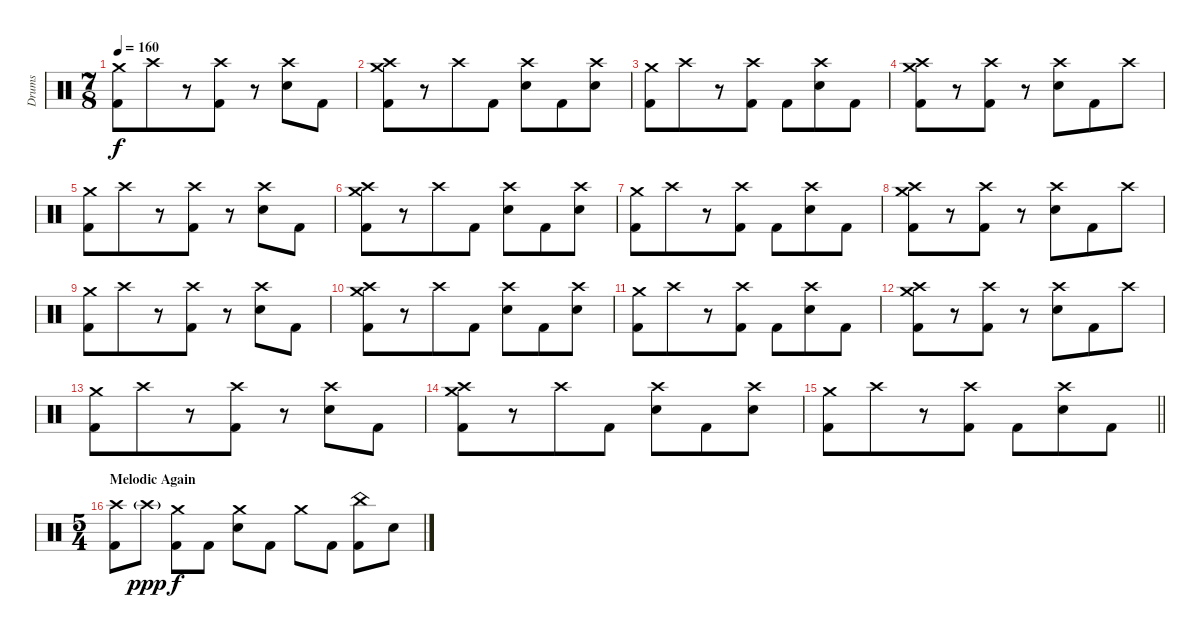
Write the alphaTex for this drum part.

\track ("Drums" "Drums") {instrument percussion}
\staff {score}
\articulation defaults
\ts (7 8)
\tempo 160
\clef neutral
\ks c
("Crash medium (hit)" "Kick (hit) 2").8{dy f} "Crash high (hit)".8 r.8 ("Crash high (hit)" "Kick (hit) 2").8 r.8 ("Crash high (hit)" "Electric Snare (hit)").8 "Kick (hit) 2".8 |
("Crash high (hit)" "Crash medium (hit)" "Kick (hit) 2").8 r.8 "Crash high (hit)".8 "Kick (hit) 2".8 ("Crash high (hit)" "Electric Snare (hit)").8 "Kick (hit) 2".8 ("Crash high (hit)" "Electric Snare (hit)").8 |
("Crash medium (hit)" "Kick (hit) 2").8 "Crash high (hit)".8 r.8 ("Crash high (hit)" "Kick (hit) 2").8 "Kick (hit) 2".8 ("Crash high (hit)" "Electric Snare (hit)").8 "Kick (hit) 2".8 |
("Crash high (hit)" "Crash medium (hit)" "Kick (hit) 2").8 r.8 ("Crash high (hit)" "Kick (hit) 2").8 r.8 ("Crash high (hit)" "Electric Snare (hit)").8 "Kick (hit) 2".8 "Crash high (hit)".8 |
("Crash medium (hit)" "Kick (hit) 2").8 "Crash high (hit)".8 r.8 ("Crash high (hit)" "Kick (hit) 2").8 r.8 ("Crash high (hit)" "Electric Snare (hit)").8 "Kick (hit) 2".8 |
("Crash high (hit)" "Crash medium (hit)" "Kick (hit) 2").8 r.8 "Crash high (hit)".8 "Kick (hit) 2".8 ("Crash high (hit)" "Electric Snare (hit)").8 "Kick (hit) 2".8 ("Crash high (hit)" "Electric Snare (hit)").8 |
("Crash medium (hit)" "Kick (hit) 2").8 "Crash high (hit)".8 r.8 ("Crash high (hit)" "Kick (hit) 2").8 "Kick (hit) 2".8 ("Crash high (hit)" "Electric Snare (hit)").8 "Kick (hit) 2".8 |
("Crash high (hit)" "Crash medium (hit)" "Kick (hit) 2").8 r.8 ("Crash high (hit)" "Kick (hit) 2").8 r.8 ("Crash high (hit)" "Electric Snare (hit)").8 "Kick (hit) 2".8 "Crash high (hit)".8 |
("Crash medium (hit)" "Kick (hit) 2").8 "Crash high (hit)".8 r.8 ("Crash high (hit)" "Kick (hit) 2").8 r.8 ("Crash high (hit)" "Electric Snare (hit)").8 "Kick (hit) 2".8 |
("Crash high (hit)" "Crash medium (hit)" "Kick (hit) 2").8 r.8 "Crash high (hit)".8 "Kick (hit) 2".8 ("Crash high (hit)" "Electric Snare (hit)").8 "Kick (hit) 2".8 ("Crash high (hit)" "Electric Snare (hit)").8 |
("Crash medium (hit)" "Kick (hit) 2").8 "Crash high (hit)".8 r.8 ("Crash high (hit)" "Kick (hit) 2").8 "Kick (hit) 2".8 ("Crash high (hit)" "Electric Snare (hit)").8 "Kick (hit) 2".8 |
("Crash high (hit)" "Crash medium (hit)" "Kick (hit) 2").8 r.8 ("Crash high (hit)" "Kick (hit) 2").8 r.8 ("Crash high (hit)" "Electric Snare (hit)").8 "Kick (hit) 2".8 "Crash high (hit)".8 |
("Crash medium (hit)" "Kick (hit) 2").8 "Crash high (hit)".8 r.8 ("Crash high (hit)" "Kick (hit) 2").8 r.8 ("Crash high (hit)" "Electric Snare (hit)").8 "Kick (hit) 2".8 |
("Crash high (hit)" "Crash medium (hit)" "Kick (hit) 2").8 r.8 "Crash high (hit)".8 "Kick (hit) 2".8 ("Crash high (hit)" "Electric Snare (hit)").8 "Kick (hit) 2".8 ("Crash high (hit)" "Electric Snare (hit)").8 |
\barLineRight lightlight
("Crash medium (hit)" "Kick (hit) 2").8 "Crash high (hit)".8 r.8 ("Crash high (hit)" "Kick (hit) 2").8 "Kick (hit) 2".8 ("Crash high (hit)" "Electric Snare (hit)").8 "Kick (hit) 2".8 |
\ts (5 4)
\section ("" "Melodic Again")
("Crash high (hit)" "Kick (hit) 2").8 "Crash high (hit)"{g}.8{dy ppp} ("Crash medium (hit)" "Kick (hit) 2").8{dy f} "Kick (hit) 2".8 ("Crash medium (hit)" "Electric Snare (hit)").8 "Kick (hit) 2".8 "Crash medium (hit)".8 "Kick (hit) 2".8 ("China (hit)" "Kick (hit) 2").8 "Electric Snare (hit)".8
